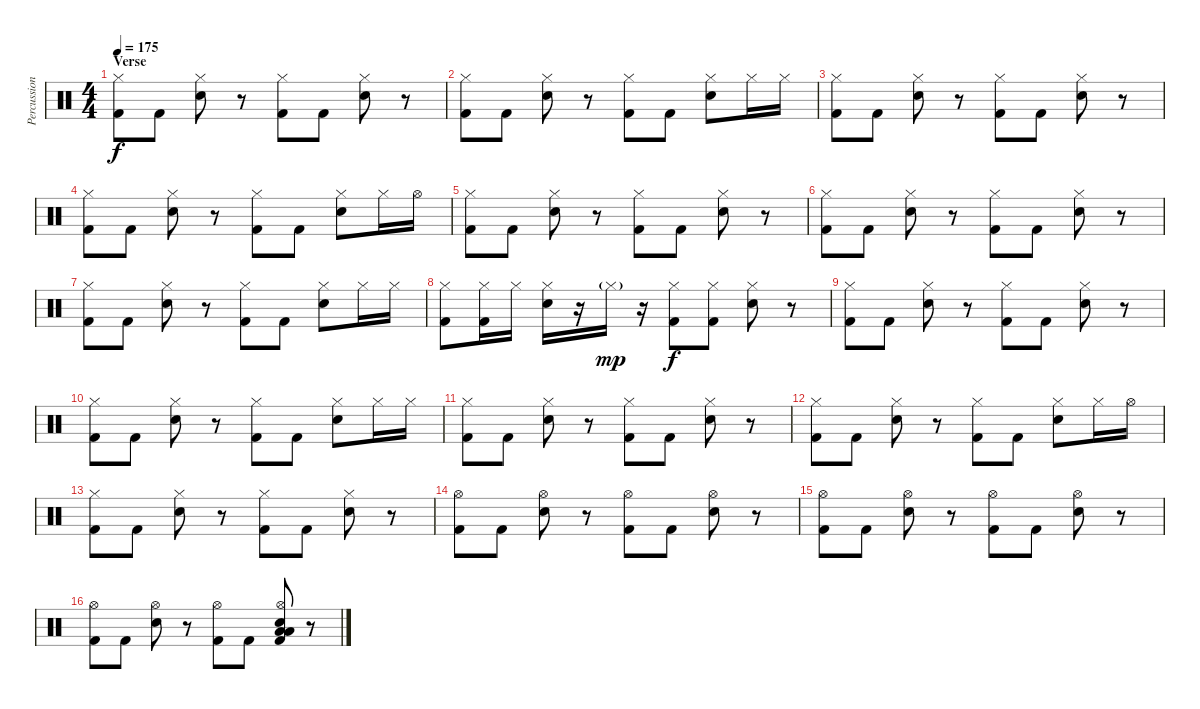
\track ("Percussions" "Percussion") {instrument percussion}
\staff {score}
\articulation defaults
\ts (4 4)
\section ("" "Verse")
\tempo 175
\clef neutral
\ks c
("Hi-Hat (closed)" "Kick (hit) 2").8{dy f} "Kick (hit) 2".8 ("Hi-Hat (closed)" "Snare (hit) 2").8 r.8 ("Hi-Hat (closed)" "Kick (hit) 2").8 "Kick (hit) 2".8 ("Hi-Hat (closed)" "Snare (hit) 2").8 r.8 |
("Hi-Hat (closed)" "Kick (hit) 2").8 "Kick (hit) 2".8 ("Hi-Hat (closed)" "Snare (hit) 2").8 r.8 ("Hi-Hat (closed)" "Kick (hit) 2").8 "Kick (hit) 2".8 ("Hi-Hat (closed)" "Snare (hit) 2").8 "Hi-Hat (closed)".16 "Hi-Hat (closed)".16 |
("Hi-Hat (closed)" "Kick (hit) 2").8 "Kick (hit) 2".8 ("Hi-Hat (closed)" "Snare (hit) 2").8 r.8 ("Hi-Hat (closed)" "Kick (hit) 2").8 "Kick (hit) 2".8 ("Hi-Hat (closed)" "Snare (hit) 2").8 r.8 |
("Hi-Hat (closed)" "Kick (hit) 2").8 "Kick (hit) 2".8 ("Hi-Hat (closed)" "Snare (hit) 2").8 r.8 ("Hi-Hat (closed)" "Kick (hit) 2").8 "Kick (hit) 2".8 ("Hi-Hat (closed)" "Snare (hit) 2").8 "Hi-Hat (closed)".16 "Hi-Hat (open)".16 |
("Hi-Hat (closed)" "Kick (hit) 2").8 "Kick (hit) 2".8 ("Hi-Hat (closed)" "Snare (hit) 2").8 r.8 ("Hi-Hat (closed)" "Kick (hit) 2").8 "Kick (hit) 2".8 ("Hi-Hat (closed)" "Snare (hit) 2").8 r.8 |
("Hi-Hat (closed)" "Kick (hit) 2").8 "Kick (hit) 2".8 ("Hi-Hat (closed)" "Snare (hit) 2").8 r.8 ("Hi-Hat (closed)" "Kick (hit) 2").8 "Kick (hit) 2".8 ("Hi-Hat (closed)" "Snare (hit) 2").8 r.8 |
("Hi-Hat (closed)" "Kick (hit) 2").8 "Kick (hit) 2".8 ("Hi-Hat (closed)" "Snare (hit) 2").8 r.8 ("Hi-Hat (closed)" "Kick (hit) 2").8 "Kick (hit) 2".8 ("Hi-Hat (closed)" "Snare (hit) 2").8 "Hi-Hat (closed)".16 "Hi-Hat (closed)".16 |
("Hi-Hat (closed)" "Kick (hit) 2").8 ("Hi-Hat (closed)" "Kick (hit) 2").16 "Hi-Hat (closed)".16 ("Hi-Hat (closed)" "Snare (hit) 2").16 r.16 "Hi-Hat (closed)"{g}.16{dy mp} r.16 ("Hi-Hat (closed)" "Kick (hit) 2").8{dy f} ("Hi-Hat (closed)" "Kick (hit) 2").8 ("Hi-Hat (closed)" "Snare (hit) 2").8 r.8 |
("Hi-Hat (closed)" "Kick (hit) 2").8 "Kick (hit) 2".8 ("Hi-Hat (closed)" "Snare (hit) 2").8 r.8 ("Hi-Hat (closed)" "Kick (hit) 2").8 "Kick (hit) 2".8 ("Hi-Hat (closed)" "Snare (hit) 2").8 r.8 |
("Hi-Hat (closed)" "Kick (hit) 2").8 "Kick (hit) 2".8 ("Hi-Hat (closed)" "Snare (hit) 2").8 r.8 ("Hi-Hat (closed)" "Kick (hit) 2").8 "Kick (hit) 2".8 ("Hi-Hat (closed)" "Snare (hit) 2").8 "Hi-Hat (closed)".16 "Hi-Hat (closed)".16 |
("Hi-Hat (closed)" "Kick (hit) 2").8 "Kick (hit) 2".8 ("Hi-Hat (closed)" "Snare (hit) 2").8 r.8 ("Hi-Hat (closed)" "Kick (hit) 2").8 "Kick (hit) 2".8 ("Hi-Hat (closed)" "Snare (hit) 2").8 r.8 |
("Hi-Hat (closed)" "Kick (hit) 2").8 "Kick (hit) 2".8 ("Hi-Hat (closed)" "Snare (hit) 2").8 r.8 ("Hi-Hat (closed)" "Kick (hit) 2").8 "Kick (hit) 2".8 ("Hi-Hat (closed)" "Snare (hit) 2").8 "Hi-Hat (closed)".16 "Hi-Hat (open)".16 |
("Hi-Hat (closed)" "Kick (hit) 2").8 "Kick (hit) 2".8 ("Hi-Hat (closed)" "Snare (hit) 2").8 r.8 ("Hi-Hat (closed)" "Kick (hit) 2").8 "Kick (hit) 2".8 ("Hi-Hat (closed)" "Snare (hit) 2").8 r.8 |
("Hi-Hat (open)" "Kick (hit) 2").8 "Kick (hit) 2".8 ("Hi-Hat (open)" "Snare (hit) 2").8 r.8 ("Hi-Hat (open)" "Kick (hit) 2").8 "Kick (hit) 2".8 ("Hi-Hat (open)" "Snare (hit) 2").8 r.8 |
("Hi-Hat (open)" "Kick (hit) 2").8 "Kick (hit) 2".8 ("Hi-Hat (open)" "Snare (hit) 2").8 r.8 ("Hi-Hat (open)" "Kick (hit) 2").8 "Kick (hit) 2".8 ("Hi-Hat (open)" "Snare (hit) 2").8 r.8 |
("Hi-Hat (open)" "Kick (hit) 2").8 "Kick (hit) 2".8 ("Hi-Hat (open)" "Snare (hit) 2").8 r.8 ("Hi-Hat (open)" "Kick (hit) 2").8 "Kick (hit) 2".8 ("Hi-Hat (open)" "Snare (hit) 2" "Low Floor Tom (hit)" "Low Tom (hit)" "Kick (hit) 2").8 r.8
